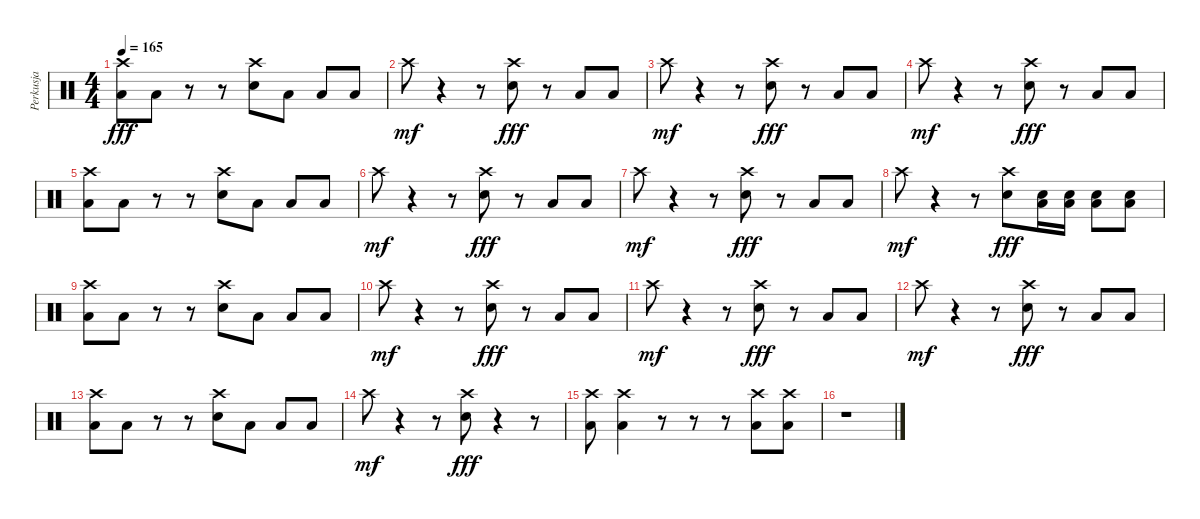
\track ("Perkusja" "Perkusja") {instrument percussion}
\staff {score}
\articulation defaults
\ts (4 4)
\tempo 165
\clef neutral
\ks c
("Crash high (hit)" "Low Tom (hit)").8{dy fff} "Low Tom (hit)".8 r.8 r.8 ("Crash high (hit)" "Electric Snare (hit)").8 "Low Tom (hit)".8 "Low Tom (hit)".8 "Low Tom (hit)".8 |
"Crash high (hit)".8{dy mf} r.4 r.8 ("Crash high (hit)" "Electric Snare (hit)").8{dy fff} r.8 "Low Tom (hit)".8 "Low Tom (hit)".8 |
"Crash high (hit)".8{dy mf} r.4 r.8 ("Crash high (hit)" "Electric Snare (hit)").8{dy fff} r.8 "Low Tom (hit)".8 "Low Tom (hit)".8 |
"Crash high (hit)".8{dy mf} r.4 r.8 ("Crash high (hit)" "Electric Snare (hit)").8{dy fff} r.8 "Low Tom (hit)".8 "Low Tom (hit)".8 |
("Crash high (hit)" "Low Tom (hit)").8 "Low Tom (hit)".8 r.8 r.8 ("Crash high (hit)" "Electric Snare (hit)").8 "Low Tom (hit)".8 "Low Tom (hit)".8 "Low Tom (hit)".8 |
"Crash high (hit)".8{dy mf} r.4 r.8 ("Crash high (hit)" "Electric Snare (hit)").8{dy fff} r.8 "Low Tom (hit)".8 "Low Tom (hit)".8 |
"Crash high (hit)".8{dy mf} r.4 r.8 ("Crash high (hit)" "Electric Snare (hit)").8{dy fff} r.8 "Low Tom (hit)".8 "Low Tom (hit)".8 |
"Crash high (hit)".8{dy mf} r.4 r.8 ("Crash high (hit)" "Electric Snare (hit)").8{dy fff} ("Electric Snare (hit)" "Low Tom (hit)").16 ("Electric Snare (hit)" "Low Tom (hit)").16 ("Electric Snare (hit)" "Low Tom (hit)").8 ("Electric Snare (hit)" "Low Tom (hit)").8 |
("Crash high (hit)" "Low Tom (hit)").8 "Low Tom (hit)".8 r.8 r.8 ("Crash high (hit)" "Electric Snare (hit)").8 "Low Tom (hit)".8 "Low Tom (hit)".8 "Low Tom (hit)".8 |
"Crash high (hit)".8{dy mf} r.4 r.8 ("Crash high (hit)" "Electric Snare (hit)").8{dy fff} r.8 "Low Tom (hit)".8 "Low Tom (hit)".8 |
"Crash high (hit)".8{dy mf} r.4 r.8 ("Crash high (hit)" "Electric Snare (hit)").8{dy fff} r.8 "Low Tom (hit)".8 "Low Tom (hit)".8 |
"Crash high (hit)".8{dy mf} r.4 r.8 ("Crash high (hit)" "Electric Snare (hit)").8{dy fff} r.8 "Low Tom (hit)".8 "Low Tom (hit)".8 |
("Crash high (hit)" "Low Tom (hit)").8 "Low Tom (hit)".8 r.8 r.8 ("Crash high (hit)" "Electric Snare (hit)").8 "Low Tom (hit)".8 "Low Tom (hit)".8 "Low Tom (hit)".8 |
"Crash high (hit)".8{dy mf} r.4 r.8 ("Crash high (hit)" "Electric Snare (hit)").8{dy fff} r.4 r.8 |
("Crash high (hit)" "Low Tom (hit)").8 ("Crash high (hit)" "Low Tom (hit)").4 r.8 r.8 r.8 ("Crash high (hit)" "Low Tom (hit)").8 ("Crash high (hit)" "Low Tom (hit)").8 |
r.1
